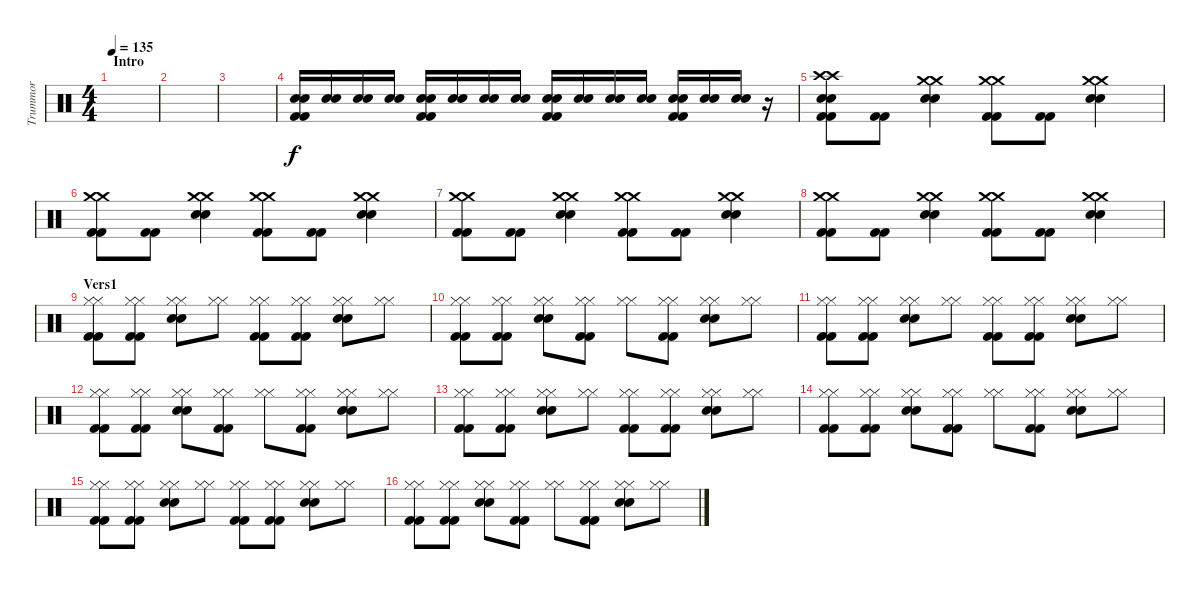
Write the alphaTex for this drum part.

\track ("Trummor" "Trummor") {instrument percussion}
\staff {score}
\articulation defaults
\ts (4 4)
\section ("" "Intro")
\tempo 135
\clef neutral
\ks c
|
|
|
("Kick (hit) 2" "Kick (hit) 2" "Snare (hit) 2" "Snare (hit) 2").16 ("Snare (hit) 2" "Snare (hit) 2").16 ("Snare (hit) 2" "Snare (hit) 2").16 ("Snare (hit) 2" "Snare (hit) 2").16 ("Kick (hit) 2" "Kick (hit) 2" "Snare (hit) 2" "Snare (hit) 2").16 ("Snare (hit) 2" "Snare (hit) 2").16 ("Snare (hit) 2" "Snare (hit) 2").16 ("Snare (hit) 2" "Snare (hit) 2").16 ("Kick (hit) 2" "Kick (hit) 2" "Snare (hit) 2" "Snare (hit) 2").16 ("Snare (hit) 2" "Snare (hit) 2").16 ("Snare (hit) 2" "Snare (hit) 2").16 ("Snare (hit) 2" "Snare (hit) 2").16 ("Kick (hit) 2" "Kick (hit) 2" "Snare (hit) 2" "Snare (hit) 2").16 ("Snare (hit) 2" "Snare (hit) 2").16 ("Snare (hit) 2" "Snare (hit) 2").16 r.16 |
("Crash high (hit)" "Crash high (hit)" "Snare (hit) 2" "Snare (hit) 2" "Kick (hit) 2" "Kick (hit) 2").8 ("Kick (hit) 2" "Kick (hit) 2").8 ("Crash medium (hit)" "Crash medium (hit)" "Snare (hit) 2" "Snare (hit) 2").4 ("Crash medium (hit)" "Crash medium (hit)" "Kick (hit) 2" "Kick (hit) 2").8 ("Kick (hit) 2" "Kick (hit) 2").8 ("Crash medium (hit)" "Crash medium (hit)" "Snare (hit) 2" "Snare (hit) 2").4 |
("Crash medium (hit)" "Crash medium (hit)" "Kick (hit) 2" "Kick (hit) 2").8 ("Kick (hit) 2" "Kick (hit) 2").8 ("Crash medium (hit)" "Crash medium (hit)" "Snare (hit) 2" "Snare (hit) 2").4 ("Crash medium (hit)" "Crash medium (hit)" "Kick (hit) 2" "Kick (hit) 2").8 ("Kick (hit) 2" "Kick (hit) 2").8 ("Crash medium (hit)" "Crash medium (hit)" "Snare (hit) 2" "Snare (hit) 2").4 |
("Crash medium (hit)" "Crash medium (hit)" "Kick (hit) 2" "Kick (hit) 2").8 ("Kick (hit) 2" "Kick (hit) 2").8 ("Crash medium (hit)" "Crash medium (hit)" "Snare (hit) 2" "Snare (hit) 2").4 ("Crash medium (hit)" "Crash medium (hit)" "Kick (hit) 2" "Kick (hit) 2").8 ("Kick (hit) 2" "Kick (hit) 2").8 ("Crash medium (hit)" "Crash medium (hit)" "Snare (hit) 2" "Snare (hit) 2").4 |
("Crash medium (hit)" "Crash medium (hit)" "Kick (hit) 2" "Kick (hit) 2").8 ("Kick (hit) 2" "Kick (hit) 2").8 ("Crash medium (hit)" "Crash medium (hit)" "Snare (hit) 2" "Snare (hit) 2").4 ("Crash medium (hit)" "Crash medium (hit)" "Kick (hit) 2" "Kick (hit) 2").8 ("Kick (hit) 2" "Kick (hit) 2").8 ("Crash medium (hit)" "Crash medium (hit)" "Snare (hit) 2" "Snare (hit) 2").4 |
\section ("" "Vers1")
("Hi-Hat (closed)" "Hi-Hat (closed)" "Kick (hit) 2" "Kick (hit) 2").8 ("Hi-Hat (closed)" "Hi-Hat (closed)" "Kick (hit) 2" "Kick (hit) 2").8 ("Hi-Hat (closed)" "Hi-Hat (closed)" "Snare (hit) 2" "Snare (hit) 2").8 ("Hi-Hat (closed)" "Hi-Hat (closed)").8 ("Hi-Hat (closed)" "Hi-Hat (closed)" "Kick (hit) 2" "Kick (hit) 2").8 ("Hi-Hat (closed)" "Hi-Hat (closed)" "Kick (hit) 2" "Kick (hit) 2").8 ("Hi-Hat (closed)" "Hi-Hat (closed)" "Snare (hit) 2" "Snare (hit) 2").8 ("Hi-Hat (closed)" "Hi-Hat (closed)").8 |
("Hi-Hat (closed)" "Hi-Hat (closed)" "Kick (hit) 2" "Kick (hit) 2").8 ("Hi-Hat (closed)" "Hi-Hat (closed)" "Kick (hit) 2" "Kick (hit) 2").8 ("Hi-Hat (closed)" "Hi-Hat (closed)" "Snare (hit) 2" "Snare (hit) 2").8 ("Hi-Hat (closed)" "Hi-Hat (closed)" "Kick (hit) 2" "Kick (hit) 2").8 ("Hi-Hat (closed)" "Hi-Hat (closed)").8 ("Hi-Hat (closed)" "Hi-Hat (closed)" "Kick (hit) 2" "Kick (hit) 2").8 ("Hi-Hat (closed)" "Hi-Hat (closed)" "Snare (hit) 2" "Snare (hit) 2").8 ("Hi-Hat (closed)" "Hi-Hat (closed)").8 |
("Hi-Hat (closed)" "Hi-Hat (closed)" "Kick (hit) 2" "Kick (hit) 2").8 ("Hi-Hat (closed)" "Hi-Hat (closed)" "Kick (hit) 2" "Kick (hit) 2").8 ("Hi-Hat (closed)" "Hi-Hat (closed)" "Snare (hit) 2" "Snare (hit) 2").8 ("Hi-Hat (closed)" "Hi-Hat (closed)").8 ("Hi-Hat (closed)" "Hi-Hat (closed)" "Kick (hit) 2" "Kick (hit) 2").8 ("Hi-Hat (closed)" "Hi-Hat (closed)" "Kick (hit) 2" "Kick (hit) 2").8 ("Hi-Hat (closed)" "Hi-Hat (closed)" "Snare (hit) 2" "Snare (hit) 2").8 ("Hi-Hat (closed)" "Hi-Hat (closed)").8 |
("Hi-Hat (closed)" "Hi-Hat (closed)" "Kick (hit) 2" "Kick (hit) 2").8 ("Hi-Hat (closed)" "Hi-Hat (closed)" "Kick (hit) 2" "Kick (hit) 2").8 ("Hi-Hat (closed)" "Hi-Hat (closed)" "Snare (hit) 2" "Snare (hit) 2").8 ("Hi-Hat (closed)" "Hi-Hat (closed)" "Kick (hit) 2" "Kick (hit) 2").8 ("Hi-Hat (closed)" "Hi-Hat (closed)").8 ("Hi-Hat (closed)" "Hi-Hat (closed)" "Kick (hit) 2" "Kick (hit) 2").8 ("Hi-Hat (closed)" "Hi-Hat (closed)" "Snare (hit) 2" "Snare (hit) 2").8 ("Hi-Hat (closed)" "Hi-Hat (closed)").8 |
("Hi-Hat (closed)" "Hi-Hat (closed)" "Kick (hit) 2" "Kick (hit) 2").8 ("Hi-Hat (closed)" "Hi-Hat (closed)" "Kick (hit) 2" "Kick (hit) 2").8 ("Hi-Hat (closed)" "Hi-Hat (closed)" "Snare (hit) 2" "Snare (hit) 2").8 ("Hi-Hat (closed)" "Hi-Hat (closed)").8 ("Hi-Hat (closed)" "Hi-Hat (closed)" "Kick (hit) 2" "Kick (hit) 2").8 ("Hi-Hat (closed)" "Hi-Hat (closed)" "Kick (hit) 2" "Kick (hit) 2").8 ("Hi-Hat (closed)" "Hi-Hat (closed)" "Snare (hit) 2" "Snare (hit) 2").8 ("Hi-Hat (closed)" "Hi-Hat (closed)").8 |
("Hi-Hat (closed)" "Hi-Hat (closed)" "Kick (hit) 2" "Kick (hit) 2").8 ("Hi-Hat (closed)" "Hi-Hat (closed)" "Kick (hit) 2" "Kick (hit) 2").8 ("Hi-Hat (closed)" "Hi-Hat (closed)" "Snare (hit) 2" "Snare (hit) 2").8 ("Hi-Hat (closed)" "Hi-Hat (closed)" "Kick (hit) 2" "Kick (hit) 2").8 ("Hi-Hat (closed)" "Hi-Hat (closed)").8 ("Hi-Hat (closed)" "Hi-Hat (closed)" "Kick (hit) 2" "Kick (hit) 2").8 ("Hi-Hat (closed)" "Hi-Hat (closed)" "Snare (hit) 2" "Snare (hit) 2").8 ("Hi-Hat (closed)" "Hi-Hat (closed)").8 |
("Hi-Hat (closed)" "Hi-Hat (closed)" "Kick (hit) 2" "Kick (hit) 2").8 ("Hi-Hat (closed)" "Hi-Hat (closed)" "Kick (hit) 2" "Kick (hit) 2").8 ("Hi-Hat (closed)" "Hi-Hat (closed)" "Snare (hit) 2" "Snare (hit) 2").8 ("Hi-Hat (closed)" "Hi-Hat (closed)").8 ("Hi-Hat (closed)" "Hi-Hat (closed)" "Kick (hit) 2" "Kick (hit) 2").8 ("Hi-Hat (closed)" "Hi-Hat (closed)" "Kick (hit) 2" "Kick (hit) 2").8 ("Hi-Hat (closed)" "Hi-Hat (closed)" "Snare (hit) 2" "Snare (hit) 2").8 ("Hi-Hat (closed)" "Hi-Hat (closed)").8 |
("Hi-Hat (closed)" "Hi-Hat (closed)" "Kick (hit) 2" "Kick (hit) 2").8 ("Hi-Hat (closed)" "Hi-Hat (closed)" "Kick (hit) 2" "Kick (hit) 2").8 ("Hi-Hat (closed)" "Hi-Hat (closed)" "Snare (hit) 2" "Snare (hit) 2").8 ("Hi-Hat (closed)" "Hi-Hat (closed)" "Kick (hit) 2" "Kick (hit) 2").8 ("Hi-Hat (closed)" "Hi-Hat (closed)").8 ("Hi-Hat (closed)" "Hi-Hat (closed)" "Kick (hit) 2" "Kick (hit) 2").8 ("Hi-Hat (closed)" "Hi-Hat (closed)" "Snare (hit) 2" "Snare (hit) 2").8 ("Hi-Hat (closed)" "Hi-Hat (closed)").8
